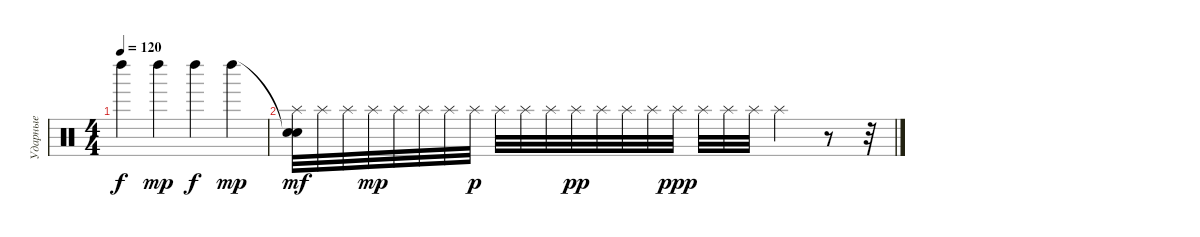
\track ("Ударные" "Ударные") {instrument percussion}
\staff {score}
\articulation defaults
\ts (4 4)
\tempo 120
\clef neutral
\ks c "Left Maraca (hit)".4{dy f} "Left Maraca (hit)".4{dy mp} "Left Maraca (hit)".4{dy f} "Left Maraca (hit)".4{dy mp}
|
("Snare (hit)"{t} "Splash (hit)" "Snare (hit)").32{dy mf volume 10} "Splash (hit)".32 "Splash (hit)".32 "Splash (hit)".32{dy mp} "Splash (hit)".32 "Splash (hit)".32 "Splash (hit)".32 "Splash (hit)".32{dy p} "Splash (hit)".32 "Splash (hit)".32 "Splash (hit)".32 "Splash (hit)".32{dy pp} "Splash (hit)".32 "Splash (hit)".32 "Splash (hit)".32 "Splash (hit)".32{dy ppp} "Splash (hit)".32 "Splash (hit)".32 "Splash (hit)".32 "Splash (hit)".4 r.8 r.32
